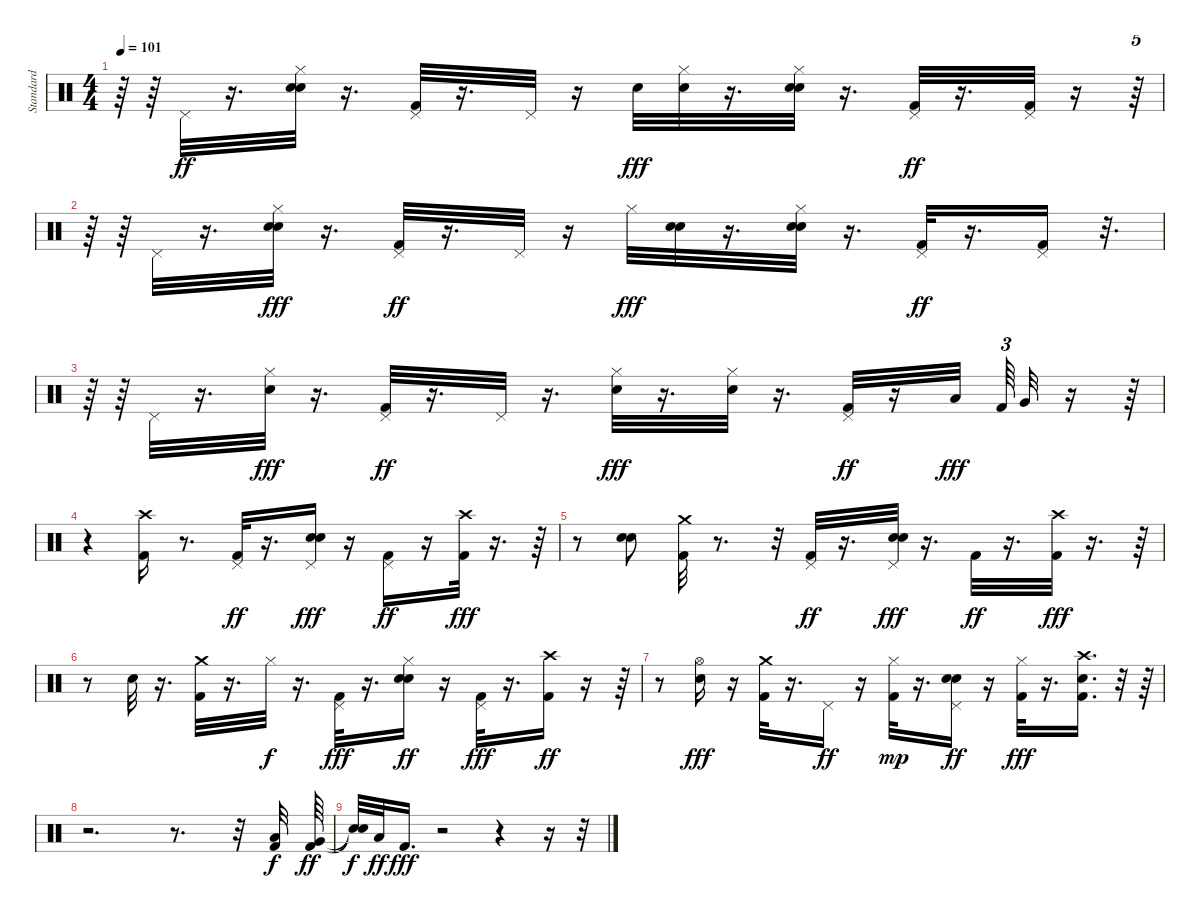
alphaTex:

\track (" Standard" " Standard") {instrument percussion}
\staff {score}
\articulation defaults
\ts (4 4)
\tempo 101
\clef neutral
\ks c
r.64{dy fff} r.64 "Pedal Hi-Hat (hit)".32{dy ff} r.16{d} ("Hand Clap (hit)" "Electric Snare (hit)" "Hi-Hat (closed)").32 r.16{d} ("Kick (hit) 2" "Pedal Hi-Hat (hit)").32 r.16{d} "Pedal Hi-Hat (hit)".32 r.16 "Hand Clap (hit)".32{dy fff} ("Electric Snare (hit)" "Hi-Hat (closed)").32 r.16{d} ("Hand Clap (hit)" "Electric Snare (hit)" "Hi-Hat (closed)").32 r.16{d} ("Kick (hit) 2" "Pedal Hi-Hat (hit)").32{dy ff} r.16{d} ("Kick (hit) 2" "Pedal Hi-Hat (hit)").32 r.16 r.64{tu (5 4)} |
r.64 r.64 "Pedal Hi-Hat (hit)".32 r.16{d} ("Electric Snare (hit)" "Hi-Hat (closed)" "Hand Clap (hit)").32{dy fff} r.16{d} ("Kick (hit) 2" "Pedal Hi-Hat (hit)").32{dy ff} r.16{d} "Pedal Hi-Hat (hit)".32 r.16 "Hi-Hat (closed)".32{dy fff} ("Electric Snare (hit)" "Hand Clap (hit)").32 r.16{d} ("Hand Clap (hit)" "Electric Snare (hit)" "Hi-Hat (closed)").32 r.16{d} ("Kick (hit) 2" "Pedal Hi-Hat (hit)").32{dy ff} r.16{d} ("Kick (hit) 2" "Pedal Hi-Hat (hit)").16 r.32{d} |
r.64 r.64 "Pedal Hi-Hat (hit)".32 r.16{d} ("Hi-Hat (closed)" "Electric Snare (hit)").32{dy fff} r.16{d} ("Kick (hit) 2" "Pedal Hi-Hat (hit)").32{dy ff} r.16{d} "Pedal Hi-Hat (hit)".32 r.16{d} ("Electric Snare (hit)" "Hi-Hat (closed)").32{dy fff} r.16{d} ("Electric Snare (hit)" "Hi-Hat (closed)").32 r.16{d} ("Kick (hit) 2" "Pedal Hi-Hat (hit)").32{dy ff} r.16 "Low Tom (hit)".32{dy fff beam splitsecondary} "Kick (hit) 2".64{tu (3 2)} "Very Low Tom (hit)".32 r.16 r.64 |
r.4 ("Crash high (hit)" "Kick (hit) 2").16 r.8{d} ("Pedal Hi-Hat (hit)" "Kick (hit) 2").32{dy ff} r.16{d} ("Pedal Hi-Hat (hit)" "Electric Snare (hit)" "Hand Clap (hit)").16{dy fff} r.16 ("Kick (hit) 2" "Pedal Hi-Hat (hit)").16{dy ff} r.16 ("Crash high (hit)" "Kick (hit) 2").32{dy fff} r.16{d} r.64 |
r.8 ("Electric Snare (hit)" "Electric Snare (hit)").8 ("Crash medium (hit)" "Kick (hit) 2").32 r.8{d} r.32 ("Pedal Hi-Hat (hit)" "Kick (hit) 2").32{dy ff} r.16{d} ("Pedal Hi-Hat (hit)" "Electric Snare (hit)" "Hand Clap (hit)").32{dy fff} r.16{d} "Kick (hit) 2".32{dy ff} r.16{d} ("Crash high (hit)" "Kick (hit) 2").32{dy fff} r.16{d} r.64 |
r.8 "Electric Snare (hit)".32 r.16{d} ("Kick (hit) 2" "Crash medium (hit)").32 r.16{d} "Hi-Hat (closed)".32{dy f} r.16{d} ("Kick (hit) 2" "Pedal Hi-Hat (hit)").32{dy fff} r.16{d} ("Hi-Hat (closed)" "Electric Snare (hit)" "Hand Clap (hit)").16{dy ff} r.16 ("Pedal Hi-Hat (hit)" "Kick (hit) 2").32{dy fff} r.16{d} ("Kick (hit) 2" "Crash high (hit)").16{dy ff} r.16 r.64 |
r.8 ("Hi-Hat (open)" "Electric Snare (hit)").16{dy fff} r.16 ("Kick (hit) 2" "Crash medium (hit)").32 r.16{d} "Pedal Hi-Hat (hit)".16{dy ff} r.16 ("Kick (hit) 2" "Hi-Hat (closed)").32{dy mp} r.16{d} ("Pedal Hi-Hat (hit)" "Electric Snare (hit)" "Hand Clap (hit)").16{dy ff} r.16 ("Hi-Hat (closed)" "Kick (hit) 2").32{dy fff} r.16{d} ("Crash high (hit)" "Kick (hit) 2" "Electric Snare (hit)").16{d} r.32 r.64 |
r.2{d} r.8{d} r.32 ("Low Tom (hit)" "Kick (hit) 2").32{dy f} ("Very Low Tom (hit)" "Kick (hit) 2").64{dy ff} |
("Snare (hit)"{t} "Snare (hit)"{t}).32{dy f} "Low Floor Tom (hit)".32{dy ff} "Kick (hit) 2".16{d dy fff} r.2 r.4 r.16 r.32
